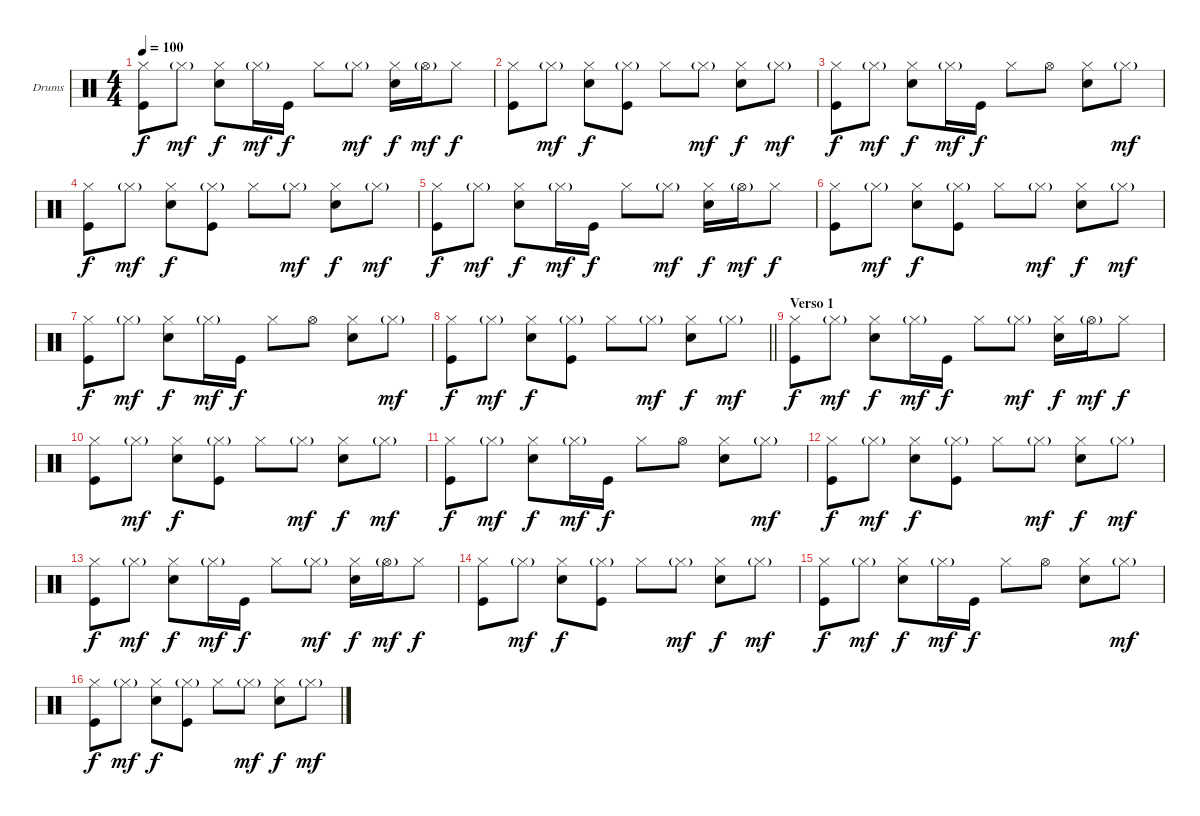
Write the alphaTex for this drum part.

\bracketExtendMode groupsimilarinstruments
\firstSystemTrackNameOrientation horizontal
\otherSystemsTrackNameOrientation horizontal
\track ("Drumkit" "Drums") {instrument percussion}
\staff {score}
\articulation defaults
\ts (4 4)
\tempo 100
\clef neutral
\ks c
("Hi-Hat (closed)" "Kick (hit)").8{dy f} "Hi-Hat (closed)"{g}.8{dy mf} ("Hi-Hat (closed)" "Snare (hit) 2").8{dy f} "Hi-Hat (closed)"{g}.16{dy mf} "Kick (hit)".16{dy f} "Hi-Hat (closed)".8 "Hi-Hat (closed)"{g}.8{dy mf} ("Hi-Hat (closed)" "Snare (hit) 2").16{dy f} "Hi-Hat (open)"{g}.16{dy mf} "Hi-Hat (closed)".8{dy f} |
("Hi-Hat (closed)" "Kick (hit)").8 "Hi-Hat (closed)"{g}.8{dy mf} ("Hi-Hat (closed)" "Snare (hit) 2").8{dy f} ("Hi-Hat (closed)"{g} "Kick (hit)").8 "Hi-Hat (closed)".8 "Hi-Hat (closed)"{g}.8{dy mf} ("Hi-Hat (closed)" "Snare (hit) 2").8{dy f} "Hi-Hat (closed)"{g}.8{dy mf} |
("Hi-Hat (closed)" "Kick (hit)").8{dy f} "Hi-Hat (closed)"{g}.8{dy mf} ("Hi-Hat (closed)" "Snare (hit) 2").8{dy f} "Hi-Hat (closed)"{g}.16{dy mf} "Kick (hit)".16{dy f} "Hi-Hat (closed)".8 "Hi-Hat (open)".8 ("Hi-Hat (closed)" "Snare (hit) 2").8 "Hi-Hat (closed)"{g}.8{dy mf} |
("Hi-Hat (closed)" "Kick (hit)").8{dy f} "Hi-Hat (closed)"{g}.8{dy mf} ("Hi-Hat (closed)" "Snare (hit) 2").8{dy f} ("Hi-Hat (closed)"{g} "Kick (hit)").8 "Hi-Hat (closed)".8 "Hi-Hat (closed)"{g}.8{dy mf} ("Hi-Hat (closed)" "Snare (hit) 2").8{dy f} "Hi-Hat (closed)"{g}.8{dy mf} |
("Hi-Hat (closed)" "Kick (hit)").8{dy f} "Hi-Hat (closed)"{g}.8{dy mf} ("Hi-Hat (closed)" "Snare (hit) 2").8{dy f} "Hi-Hat (closed)"{g}.16{dy mf} "Kick (hit)".16{dy f} "Hi-Hat (closed)".8 "Hi-Hat (closed)"{g}.8{dy mf} ("Hi-Hat (closed)" "Snare (hit) 2").16{dy f} "Hi-Hat (open)"{g}.16{dy mf} "Hi-Hat (closed)".8{dy f} |
("Hi-Hat (closed)" "Kick (hit)").8 "Hi-Hat (closed)"{g}.8{dy mf} ("Hi-Hat (closed)" "Snare (hit) 2").8{dy f} ("Hi-Hat (closed)"{g} "Kick (hit)").8 "Hi-Hat (closed)".8 "Hi-Hat (closed)"{g}.8{dy mf} ("Hi-Hat (closed)" "Snare (hit) 2").8{dy f} "Hi-Hat (closed)"{g}.8{dy mf} |
("Hi-Hat (closed)" "Kick (hit)").8{dy f} "Hi-Hat (closed)"{g}.8{dy mf} ("Hi-Hat (closed)" "Snare (hit) 2").8{dy f} "Hi-Hat (closed)"{g}.16{dy mf} "Kick (hit)".16{dy f} "Hi-Hat (closed)".8 "Hi-Hat (open)".8 ("Hi-Hat (closed)" "Snare (hit) 2").8 "Hi-Hat (closed)"{g}.8{dy mf} |
\barLineRight lightlight
("Hi-Hat (closed)" "Kick (hit)").8{dy f} "Hi-Hat (closed)"{g}.8{dy mf} ("Hi-Hat (closed)" "Snare (hit) 2").8{dy f} ("Hi-Hat (closed)"{g} "Kick (hit)").8 "Hi-Hat (closed)".8 "Hi-Hat (closed)"{g}.8{dy mf} ("Hi-Hat (closed)" "Snare (hit) 2").8{dy f} "Hi-Hat (closed)"{g}.8{dy mf} |
\section ("" "Verso 1")
("Hi-Hat (closed)" "Kick (hit)").8{dy f} "Hi-Hat (closed)"{g}.8{dy mf} ("Hi-Hat (closed)" "Snare (hit) 2").8{dy f} "Hi-Hat (closed)"{g}.16{dy mf} "Kick (hit)".16{dy f} "Hi-Hat (closed)".8 "Hi-Hat (closed)"{g}.8{dy mf} ("Hi-Hat (closed)" "Snare (hit) 2").16{dy f} "Hi-Hat (open)"{g}.16{dy mf} "Hi-Hat (closed)".8{dy f} |
("Hi-Hat (closed)" "Kick (hit)").8 "Hi-Hat (closed)"{g}.8{dy mf} ("Hi-Hat (closed)" "Snare (hit) 2").8{dy f} ("Hi-Hat (closed)"{g} "Kick (hit)").8 "Hi-Hat (closed)".8 "Hi-Hat (closed)"{g}.8{dy mf} ("Hi-Hat (closed)" "Snare (hit) 2").8{dy f} "Hi-Hat (closed)"{g}.8{dy mf} |
("Hi-Hat (closed)" "Kick (hit)").8{dy f} "Hi-Hat (closed)"{g}.8{dy mf} ("Hi-Hat (closed)" "Snare (hit) 2").8{dy f} "Hi-Hat (closed)"{g}.16{dy mf} "Kick (hit)".16{dy f} "Hi-Hat (closed)".8 "Hi-Hat (open)".8 ("Hi-Hat (closed)" "Snare (hit) 2").8 "Hi-Hat (closed)"{g}.8{dy mf} |
("Hi-Hat (closed)" "Kick (hit)").8{dy f} "Hi-Hat (closed)"{g}.8{dy mf} ("Hi-Hat (closed)" "Snare (hit) 2").8{dy f} ("Hi-Hat (closed)"{g} "Kick (hit)").8 "Hi-Hat (closed)".8 "Hi-Hat (closed)"{g}.8{dy mf} ("Hi-Hat (closed)" "Snare (hit) 2").8{dy f} "Hi-Hat (closed)"{g}.8{dy mf} |
("Hi-Hat (closed)" "Kick (hit)").8{dy f} "Hi-Hat (closed)"{g}.8{dy mf} ("Hi-Hat (closed)" "Snare (hit) 2").8{dy f} "Hi-Hat (closed)"{g}.16{dy mf} "Kick (hit)".16{dy f} "Hi-Hat (closed)".8 "Hi-Hat (closed)"{g}.8{dy mf} ("Hi-Hat (closed)" "Snare (hit) 2").16{dy f} "Hi-Hat (open)"{g}.16{dy mf} "Hi-Hat (closed)".8{dy f} |
("Hi-Hat (closed)" "Kick (hit)").8 "Hi-Hat (closed)"{g}.8{dy mf} ("Hi-Hat (closed)" "Snare (hit) 2").8{dy f} ("Hi-Hat (closed)"{g} "Kick (hit)").8 "Hi-Hat (closed)".8 "Hi-Hat (closed)"{g}.8{dy mf} ("Hi-Hat (closed)" "Snare (hit) 2").8{dy f} "Hi-Hat (closed)"{g}.8{dy mf} |
("Hi-Hat (closed)" "Kick (hit)").8{dy f} "Hi-Hat (closed)"{g}.8{dy mf} ("Hi-Hat (closed)" "Snare (hit) 2").8{dy f} "Hi-Hat (closed)"{g}.16{dy mf} "Kick (hit)".16{dy f} "Hi-Hat (closed)".8 "Hi-Hat (open)".8 ("Hi-Hat (closed)" "Snare (hit) 2").8 "Hi-Hat (closed)"{g}.8{dy mf} |
("Hi-Hat (closed)" "Kick (hit)").8{dy f} "Hi-Hat (closed)"{g}.8{dy mf} ("Hi-Hat (closed)" "Snare (hit) 2").8{dy f} ("Hi-Hat (closed)"{g} "Kick (hit)").8 "Hi-Hat (closed)".8 "Hi-Hat (closed)"{g}.8{dy mf} ("Hi-Hat (closed)" "Snare (hit) 2").8{dy f} "Hi-Hat (closed)"{g}.8{dy mf}
